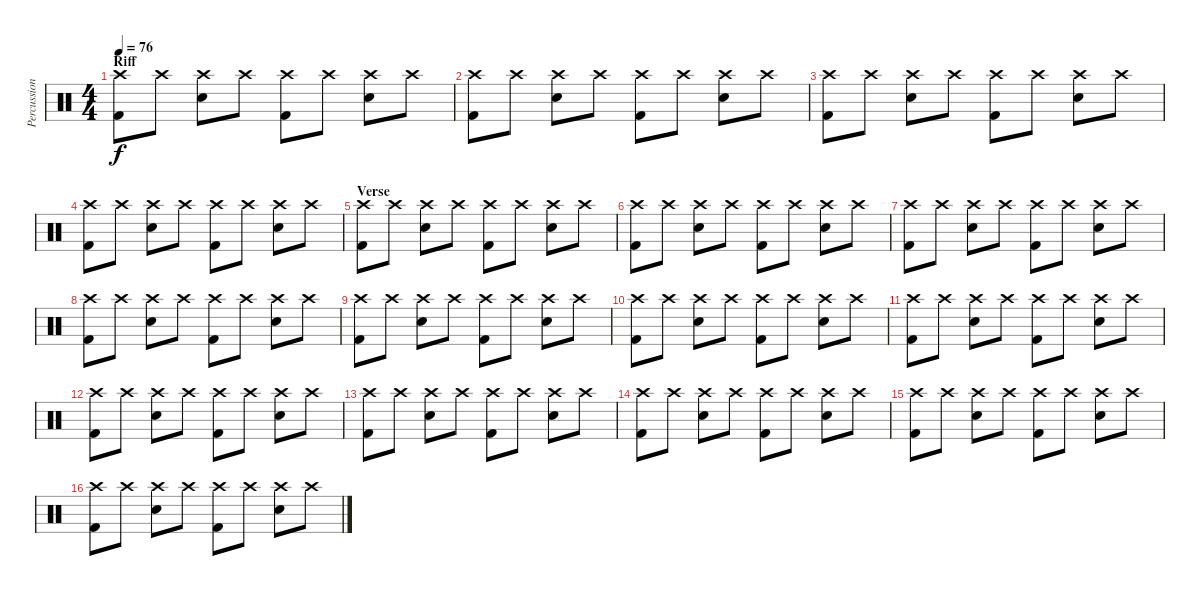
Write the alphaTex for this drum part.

\track ("Percussion" "Percussion") {instrument percussion}
\staff {score}
\articulation defaults
\ts (4 4)
\section ("" "Riff")
\tempo 76
\clef neutral
\ks c
("Crash high (hit)" "Kick (hit) 2").8{dy f} "Crash high (hit)".8 ("Crash high (hit)" "Electric Snare (hit)").8 "Crash high (hit)".8 ("Crash high (hit)" "Kick (hit) 2").8 "Crash high (hit)".8 ("Crash high (hit)" "Electric Snare (hit)").8 "Crash high (hit)".8 |
("Crash high (hit)" "Kick (hit) 2").8 "Crash high (hit)".8 ("Crash high (hit)" "Electric Snare (hit)").8 "Crash high (hit)".8 ("Crash high (hit)" "Kick (hit) 2").8 "Crash high (hit)".8 ("Crash high (hit)" "Electric Snare (hit)").8 "Crash high (hit)".8 |
("Crash high (hit)" "Kick (hit) 2").8 "Crash high (hit)".8 ("Crash high (hit)" "Electric Snare (hit)").8 "Crash high (hit)".8 ("Crash high (hit)" "Kick (hit) 2").8 "Crash high (hit)".8 ("Crash high (hit)" "Electric Snare (hit)").8 "Crash high (hit)".8 |
("Crash high (hit)" "Kick (hit) 2").8 "Crash high (hit)".8 ("Crash high (hit)" "Electric Snare (hit)").8 "Crash high (hit)".8 ("Crash high (hit)" "Kick (hit) 2").8 "Crash high (hit)".8 ("Crash high (hit)" "Electric Snare (hit)").8 "Crash high (hit)".8 |
\section ("" "Verse")
("Crash high (hit)" "Kick (hit) 2").8 "Crash high (hit)".8 ("Crash high (hit)" "Electric Snare (hit)").8 "Crash high (hit)".8 ("Crash high (hit)" "Kick (hit) 2").8 "Crash high (hit)".8 ("Crash high (hit)" "Electric Snare (hit)").8 "Crash high (hit)".8 |
("Crash high (hit)" "Kick (hit) 2").8 "Crash high (hit)".8 ("Crash high (hit)" "Electric Snare (hit)").8 "Crash high (hit)".8 ("Crash high (hit)" "Kick (hit) 2").8 "Crash high (hit)".8 ("Crash high (hit)" "Electric Snare (hit)").8 "Crash high (hit)".8 |
("Crash high (hit)" "Kick (hit) 2").8 "Crash high (hit)".8 ("Crash high (hit)" "Electric Snare (hit)").8 "Crash high (hit)".8 ("Crash high (hit)" "Kick (hit) 2").8 "Crash high (hit)".8 ("Crash high (hit)" "Electric Snare (hit)").8 "Crash high (hit)".8 |
("Crash high (hit)" "Kick (hit) 2").8 "Crash high (hit)".8 ("Crash high (hit)" "Electric Snare (hit)").8 "Crash high (hit)".8 ("Crash high (hit)" "Kick (hit) 2").8 "Crash high (hit)".8 ("Crash high (hit)" "Electric Snare (hit)").8 "Crash high (hit)".8 |
("Crash high (hit)" "Kick (hit) 2").8 "Crash high (hit)".8 ("Crash high (hit)" "Electric Snare (hit)").8 "Crash high (hit)".8 ("Crash high (hit)" "Kick (hit) 2").8 "Crash high (hit)".8 ("Crash high (hit)" "Electric Snare (hit)").8 "Crash high (hit)".8 |
("Crash high (hit)" "Kick (hit) 2").8 "Crash high (hit)".8 ("Crash high (hit)" "Electric Snare (hit)").8 "Crash high (hit)".8 ("Crash high (hit)" "Kick (hit) 2").8 "Crash high (hit)".8 ("Crash high (hit)" "Electric Snare (hit)").8 "Crash high (hit)".8 |
("Crash high (hit)" "Kick (hit) 2").8 "Crash high (hit)".8 ("Crash high (hit)" "Electric Snare (hit)").8 "Crash high (hit)".8 ("Crash high (hit)" "Kick (hit) 2").8 "Crash high (hit)".8 ("Crash high (hit)" "Electric Snare (hit)").8 "Crash high (hit)".8 |
("Crash high (hit)" "Kick (hit) 2").8 "Crash high (hit)".8 ("Crash high (hit)" "Electric Snare (hit)").8 "Crash high (hit)".8 ("Crash high (hit)" "Kick (hit) 2").8 "Crash high (hit)".8 ("Crash high (hit)" "Electric Snare (hit)").8 "Crash high (hit)".8 |
("Crash high (hit)" "Kick (hit) 2").8 "Crash high (hit)".8 ("Crash high (hit)" "Electric Snare (hit)").8 "Crash high (hit)".8 ("Crash high (hit)" "Kick (hit) 2").8 "Crash high (hit)".8 ("Crash high (hit)" "Electric Snare (hit)").8 "Crash high (hit)".8 |
("Crash high (hit)" "Kick (hit) 2").8 "Crash high (hit)".8 ("Crash high (hit)" "Electric Snare (hit)").8 "Crash high (hit)".8 ("Crash high (hit)" "Kick (hit) 2").8 "Crash high (hit)".8 ("Crash high (hit)" "Electric Snare (hit)").8 "Crash high (hit)".8 |
("Crash high (hit)" "Kick (hit) 2").8 "Crash high (hit)".8 ("Crash high (hit)" "Electric Snare (hit)").8 "Crash high (hit)".8 ("Crash high (hit)" "Kick (hit) 2").8 "Crash high (hit)".8 ("Crash high (hit)" "Electric Snare (hit)").8 "Crash high (hit)".8 |
("Crash high (hit)" "Kick (hit) 2").8 "Crash high (hit)".8 ("Crash high (hit)" "Electric Snare (hit)").8 "Crash high (hit)".8 ("Crash high (hit)" "Kick (hit) 2").8 "Crash high (hit)".8 ("Crash high (hit)" "Electric Snare (hit)").8 "Crash high (hit)".8
